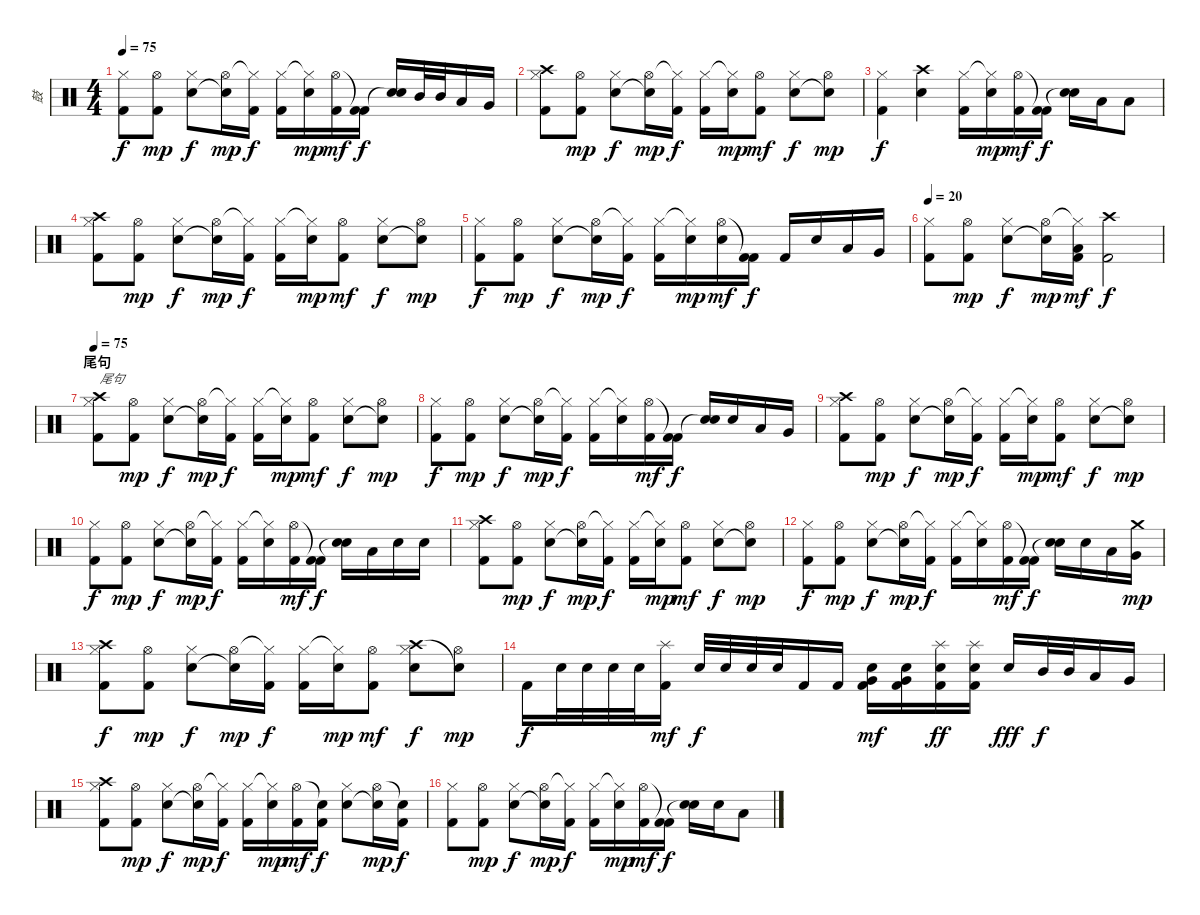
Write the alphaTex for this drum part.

\track ("鼓" "鼓") {instrument percussion}
\staff {score}
\articulation defaults
\ts (4 4)
\tempo 75
\clef neutral
\ks c
("Hi-Hat (closed)" "Kick (hit) 2").8{dy f} ("Hi-Hat (open)" "Kick (hit) 2").8{dy mp} ("Hi-Hat (closed)" "Electric Snare (hit)").8{dy f} ("Hi-Hat (open)" "Snare (hit)"{t}).16{dy mp} ("Hi-Hat (closed)"{t} "Kick (hit) 2").16{dy f} ("Hi-Hat (closed)" "Kick (hit) 2").16 ("Hi-Hat (closed)"{t} "Electric Snare (hit)").16{dy mp} ("Hi-Hat (open)" "Kick (hit) 2").16{dy mf} ("Kick (hit) 2"{t} "Kick (hit) 2").16{dy f} ("Electric Snare (hit)" "Snare (hit)"{t}).16 "Mid Tom (hit)".32 "Mid Tom (hit)".32 "Low Tom (hit)".16 "Very Low Tom (hit)".16 |
("Hi-Hat (closed)" "Crash high (hit)" "Kick (hit) 2").8 ("Hi-Hat (open)" "Kick (hit) 2").8{dy mp} ("Hi-Hat (closed)" "Electric Snare (hit)").8{dy f} ("Hi-Hat (open)" "Snare (hit)"{t}).16{dy mp} ("Hi-Hat (closed)"{t} "Kick (hit) 2").16{dy f} ("Hi-Hat (closed)" "Kick (hit) 2").16 ("Hi-Hat (closed)"{t} "Electric Snare (hit)").16{dy mp} ("Hi-Hat (open)" "Kick (hit) 2").8{dy mf} ("Hi-Hat (closed)" "Electric Snare (hit)").8{dy f} ("Hi-Hat (open)" "Snare (hit)"{t}).8{dy mp} |
("Hi-Hat (closed)" "Kick (hit) 2").4{dy f} ("Crash high (hit)" "Electric Snare (hit)").4 ("Hi-Hat (closed)" "Kick (hit) 2").16 ("Hi-Hat (closed)"{t} "Electric Snare (hit)").16{dy mp} ("Hi-Hat (open)" "Kick (hit) 2").16{dy mf} ("Kick (hit) 2"{t} "Kick (hit) 2").16{dy f} ("Electric Snare (hit)" "Snare (hit)"{t}).16 "Low Tom (hit)".16 "Low Tom (hit)".8 |
("Hi-Hat (closed)" "Crash high (hit)" "Kick (hit) 2").8 ("Hi-Hat (open)" "Kick (hit) 2").8{dy mp} ("Hi-Hat (closed)" "Electric Snare (hit)").8{dy f} ("Hi-Hat (open)" "Snare (hit)"{t}).16{dy mp} ("Hi-Hat (closed)"{t} "Kick (hit) 2").16{dy f} ("Hi-Hat (closed)" "Kick (hit) 2").16 ("Hi-Hat (closed)"{t} "Electric Snare (hit)").16{dy mp} ("Hi-Hat (open)" "Kick (hit) 2").8{dy mf} ("Hi-Hat (closed)" "Electric Snare (hit)").8{dy f} ("Hi-Hat (open)" "Snare (hit)"{t}).8{dy mp} |
("Hi-Hat (closed)" "Kick (hit) 2").8{dy f} ("Hi-Hat (open)" "Kick (hit) 2").8{dy mp} ("Hi-Hat (closed)" "Electric Snare (hit)").8{dy f} ("Hi-Hat (open)" "Snare (hit)"{t}).16{dy mp} ("Hi-Hat (closed)"{t} "Kick (hit) 2").16{dy f} ("Hi-Hat (closed)" "Kick (hit) 2").16 ("Hi-Hat (closed)"{t} "Electric Snare (hit)").16{dy mp} ("Hi-Hat (open)" "Electric Snare (hit)").16{dy mf} ("Kick (hit) 2"{t} "Kick (hit) 2").16{dy f} "Kick (hit) 2".16 "Electric Snare (hit)".16 "Low Tom (hit)".16 "Very Low Tom (hit)".16 |
\tempo 20
("Hi-Hat (closed)" "Kick (hit) 2").8 ("Hi-Hat (open)" "Kick (hit) 2").8{dy mp} ("Hi-Hat (closed)" "Electric Snare (hit)").8{dy f} ("Hi-Hat (open)" "Snare (hit)"{t}).16{dy mp} ("Hi-Hat (closed)"{t} "Low Floor Tom (hit)" "Kick (hit) 2").16{dy mf} ("Crash high (hit)" "Kick (hit) 2").2{dy f} |
\section ("" "尾句")
\tempo 75
("Hi-Hat (closed)" "Crash high (hit)" "Kick (hit) 2").8{txt "尾句"} ("Hi-Hat (open)" "Kick (hit) 2").8{dy mp} ("Hi-Hat (closed)" "Electric Snare (hit)").8{dy f} ("Hi-Hat (open)" "Snare (hit)"{t}).16{dy mp} ("Hi-Hat (closed)"{t} "Kick (hit) 2").16{dy f} ("Hi-Hat (closed)" "Kick (hit) 2").16 ("Hi-Hat (closed)"{t} "Electric Snare (hit)").16{dy mp} ("Hi-Hat (open)" "Kick (hit) 2").8{dy mf} ("Hi-Hat (closed)" "Electric Snare (hit)").8{dy f} ("Hi-Hat (open)" "Snare (hit)"{t}).8{dy mp} |
("Hi-Hat (closed)" "Kick (hit) 2").8{dy f} ("Hi-Hat (open)" "Kick (hit) 2").8{dy mp} ("Hi-Hat (closed)" "Electric Snare (hit)").8{dy f} ("Hi-Hat (open)" "Snare (hit)"{t}).16{dy mp} ("Hi-Hat (closed)"{t} "Kick (hit) 2").16{dy f} ("Hi-Hat (closed)" "Kick (hit) 2").16 ("Hi-Hat (closed)"{t} "Electric Snare (hit)").16 ("Hi-Hat (open)" "Kick (hit) 2").16{dy mf} ("Kick (hit) 2"{t} "Kick (hit) 2").16{dy f} ("Electric Snare (hit)" "Snare (hit)"{t}).16 "Electric Snare (hit)".16 "Low Tom (hit)".16 "Very Low Tom (hit)".16 |
("Hi-Hat (closed)" "Crash high (hit)" "Kick (hit) 2").8 ("Hi-Hat (open)" "Kick (hit) 2").8{dy mp} ("Hi-Hat (closed)" "Electric Snare (hit)").8{dy f} ("Hi-Hat (open)" "Snare (hit)"{t}).16{dy mp} ("Hi-Hat (closed)"{t} "Kick (hit) 2").16{dy f} ("Hi-Hat (closed)" "Kick (hit) 2").16 ("Hi-Hat (closed)"{t} "Electric Snare (hit)").16{dy mp} ("Hi-Hat (open)" "Kick (hit) 2").8{dy mf} ("Hi-Hat (closed)" "Electric Snare (hit)").8{dy f} ("Hi-Hat (open)" "Snare (hit)"{t}).8{dy mp} |
("Hi-Hat (closed)" "Kick (hit) 2").8{dy f} ("Hi-Hat (open)" "Kick (hit) 2").8{dy mp} ("Hi-Hat (closed)" "Electric Snare (hit)").8{dy f} ("Hi-Hat (open)" "Snare (hit)"{t}).16{dy mp} ("Hi-Hat (closed)"{t} "Kick (hit) 2").16{dy f} ("Hi-Hat (closed)" "Kick (hit) 2").16 ("Hi-Hat (closed)"{t} "Electric Snare (hit)").16 ("Hi-Hat (open)" "Kick (hit) 2").16{dy mf} ("Kick (hit) 2"{t} "Kick (hit) 2").16{dy f} ("Electric Snare (hit)" "Snare (hit)"{t}).16 "Low Tom (hit)".16 "Electric Snare (hit)".16 "Electric Snare (hit)".16 |
("Hi-Hat (closed)" "Crash high (hit)" "Kick (hit) 2").8 ("Hi-Hat (open)" "Kick (hit) 2").8{dy mp} ("Hi-Hat (closed)" "Electric Snare (hit)").8{dy f} ("Hi-Hat (open)" "Snare (hit)"{t}).16{dy mp} ("Hi-Hat (closed)"{t} "Kick (hit) 2").16{dy f} ("Hi-Hat (closed)" "Kick (hit) 2").16 ("Hi-Hat (closed)"{t} "Electric Snare (hit)").16{dy mp} ("Hi-Hat (open)" "Kick (hit) 2").8{dy mf} ("Hi-Hat (closed)" "Electric Snare (hit)").8{dy f} ("Hi-Hat (open)" "Snare (hit)"{t}).8{dy mp} |
("Hi-Hat (closed)" "Kick (hit) 2").8{dy f} ("Hi-Hat (open)" "Kick (hit) 2").8{dy mp} ("Hi-Hat (closed)" "Electric Snare (hit)").8{dy f} ("Hi-Hat (open)" "Snare (hit)"{t}).16{dy mp} ("Hi-Hat (closed)"{t} "Kick (hit) 2").16{dy f} ("Hi-Hat (closed)" "Kick (hit) 2").16 ("Hi-Hat (closed)"{t} "Electric Snare (hit)").16 ("Hi-Hat (open)" "Kick (hit) 2").16{dy mf} ("Kick (hit) 2"{t} "Kick (hit) 2").16{dy f} ("Electric Snare (hit)" "Snare (hit)"{t}).16 "Electric Snare (hit)".16 "Low Tom (hit)".16 ("Crash medium (hit)" "Very Low Tom (hit)").16{dy mp} |
("Hi-Hat (closed)" "Crash high (hit)" "Kick (hit) 2").8{dy f} ("Hi-Hat (open)" "Kick (hit) 2").8{dy mp} ("Hi-Hat (closed)" "Electric Snare (hit)").8{dy f} ("Hi-Hat (open)" "Snare (hit)"{t}).16{dy mp} ("Hi-Hat (closed)"{t} "Kick (hit) 2").16{dy f} ("Hi-Hat (closed)" "Kick (hit) 2").16 ("Hi-Hat (closed)"{t} "Electric Snare (hit)").16{dy mp} ("Hi-Hat (open)" "Kick (hit) 2").8{dy mf} ("Hi-Hat (closed)" "Crash high (hit)" "Electric Snare (hit)").8{dy f} ("Hi-Hat (open)" "Snare (hit)"{t}).8{dy mp} |
"Kick (hit) 2".16{dy f} "Electric Snare (hit)".32 "Electric Snare (hit)".32 "Electric Snare (hit)".32 "Electric Snare (hit)".32 ("Splash (hit)" "Kick (hit) 2").16{dy mf} "Electric Snare (hit)".32{dy f} "Electric Snare (hit)".32 "Electric Snare (hit)".32 "Electric Snare (hit)".32 "Kick (hit) 2".16 "Kick (hit) 2".16 ("Very Low Tom (hit)" "Electric Snare (hit)" "Kick (hit) 2").16{dy mf} ("Very Low Tom (hit)" "Electric Snare (hit)" "Kick (hit) 2").16 ("Splash (hit)" "Electric Snare (hit)" "Kick (hit) 2").16{dy ff} ("Splash (hit)" "Electric Snare (hit)" "Kick (hit) 2").16 "Electric Snare (hit)".16{dy fff} "Mid Tom (hit)".32{dy f} "Mid Tom (hit)".32 "Low Tom (hit)".16 "Very Low Tom (hit)".16 |
\section ("" "")
("Hi-Hat (closed)" "Crash high (hit)" "Kick (hit) 2").8 ("Hi-Hat (open)" "Kick (hit) 2").8{dy mp} ("Hi-Hat (closed)" "Electric Snare (hit)").8{dy f} ("Hi-Hat (open)" "Snare (hit)"{t}).16{dy mp} ("Hi-Hat (closed)"{t} "Kick (hit) 2").16{dy f} ("Hi-Hat (closed)" "Kick (hit) 2").16 ("Hi-Hat (closed)"{t} "Electric Snare (hit)").16{dy mp} ("Hi-Hat (open)" "Kick (hit) 2").16{dy mf} ("Snare (hit)"{t} "Kick (hit) 2").16{dy f} ("Hi-Hat (closed)" "Electric Snare (hit)").8 ("Hi-Hat (open)" "Snare (hit)"{t}).16{dy mp} ("Snare (hit)"{t} "Kick (hit) 2").16{dy f} |
("Hi-Hat (closed)" "Kick (hit) 2").8 ("Hi-Hat (open)" "Kick (hit) 2").8{dy mp} ("Hi-Hat (closed)" "Electric Snare (hit)").8{dy f} ("Hi-Hat (open)" "Snare (hit)"{t}).16{dy mp} ("Hi-Hat (closed)"{t} "Kick (hit) 2").16{dy f} ("Hi-Hat (closed)" "Kick (hit) 2").16 ("Hi-Hat (closed)"{t} "Electric Snare (hit)").16{dy mp} ("Hi-Hat (open)" "Kick (hit) 2").16{dy mf} ("Kick (hit) 2"{t} "Kick (hit) 2").16{dy f} ("Electric Snare (hit)" "Snare (hit)"{t}).16 "Electric Snare (hit)".16 "Low Tom (hit)".8
